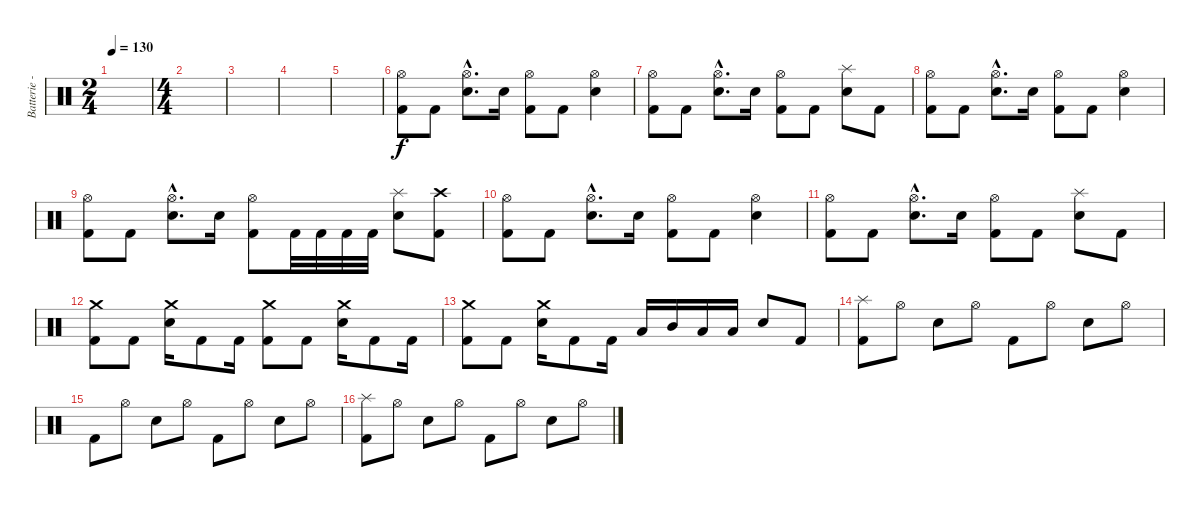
\track ("Batterie - Anton" "Batterie -") {instrument percussion}
\staff {score}
\articulation defaults
\ts (2 4)
\tempo 130
\clef neutral
\ks c
|
\ts (4 4)
|
|
|
|
("Hi-Hat (open)" "Kick (hit) 2").8 "Kick (hit) 2".8 ("Hi-Hat (open)"{hac} "Electric Snare (hit)"{hac}).8{d} "Electric Snare (hit)".16 ("Hi-Hat (open)" "Kick (hit) 2").8 "Kick (hit) 2".8 ("Hi-Hat (open)" "Electric Snare (hit)").4 |
("Hi-Hat (open)" "Kick (hit) 2").8 "Kick (hit) 2".8 ("Hi-Hat (open)"{hac} "Electric Snare (hit)"{hac}).8{d} "Electric Snare (hit)".16 ("Hi-Hat (open)" "Kick (hit) 2").8 "Kick (hit) 2".8 ("Splash (hit)" "Electric Snare (hit)").8 "Kick (hit) 2".8 |
("Hi-Hat (open)" "Kick (hit) 2").8 "Kick (hit) 2".8 ("Hi-Hat (open)"{hac} "Electric Snare (hit)"{hac}).8{d} "Electric Snare (hit)".16 ("Hi-Hat (open)" "Kick (hit) 2").8 "Kick (hit) 2".8 ("Hi-Hat (open)" "Electric Snare (hit)").4 |
("Hi-Hat (open)" "Kick (hit) 2").8 "Kick (hit) 2".8 ("Hi-Hat (open)"{hac} "Electric Snare (hit)"{hac}).8{d} "Electric Snare (hit)".16 ("Hi-Hat (open)" "Kick (hit) 2").8 "Kick (hit) 2".32 "Kick (hit) 2".32 "Kick (hit) 2".32 "Kick (hit) 2".32 ("Splash (hit)" "Electric Snare (hit)").8 ("Crash high (hit)" "Kick (hit) 2").8 |
("Hi-Hat (open)" "Kick (hit) 2").8 "Kick (hit) 2".8 ("Hi-Hat (open)"{hac} "Electric Snare (hit)"{hac}).8{d} "Electric Snare (hit)".16 ("Hi-Hat (open)" "Kick (hit) 2").8 "Kick (hit) 2".8 ("Hi-Hat (open)" "Electric Snare (hit)").4 |
("Hi-Hat (open)" "Kick (hit) 2").8 "Kick (hit) 2".8 ("Hi-Hat (open)"{hac} "Electric Snare (hit)"{hac}).8{d} "Electric Snare (hit)".16 ("Hi-Hat (open)" "Kick (hit) 2").8 "Kick (hit) 2".8 ("Splash (hit)" "Electric Snare (hit)").8 "Kick (hit) 2".8 |
("Crash medium (hit)" "Kick (hit) 2").8 "Kick (hit) 2".8 ("Crash medium (hit)" "Electric Snare (hit)").16 "Kick (hit) 2".8 "Kick (hit) 2".16 ("Crash medium (hit)" "Kick (hit) 2").8 "Kick (hit) 2".8 ("Crash medium (hit)" "Electric Snare (hit)").16 "Kick (hit) 2".8 "Kick (hit) 2".16 |
("Crash medium (hit)" "Kick (hit) 2").8 "Kick (hit) 2".8 ("Crash medium (hit)" "Electric Snare (hit)").16 "Kick (hit) 2".8 "Kick (hit) 2".16 "Low Tom (hit)".16 "Mid Tom (hit)".16 "Low Tom (hit)".16 "Low Tom (hit)".16 "Electric Snare (hit)".8 "Kick (hit) 2".8 |
("Splash (hit)" "Kick (hit) 2").8 "Hi-Hat (open)".8 "Electric Snare (hit)".8 "Hi-Hat (open)".8 "Kick (hit) 2".8 "Hi-Hat (open)".8 "Electric Snare (hit)".8 "Hi-Hat (open)".8 |
"Kick (hit) 2".8 "Hi-Hat (open)".8 "Electric Snare (hit)".8 "Hi-Hat (open)".8 "Kick (hit) 2".8 "Hi-Hat (open)".8 "Electric Snare (hit)".8 "Hi-Hat (open)".8 |
("Splash (hit)" "Kick (hit) 2").8 "Hi-Hat (open)".8 "Electric Snare (hit)".8 "Hi-Hat (open)".8 "Kick (hit) 2".8 "Hi-Hat (open)".8 "Electric Snare (hit)".8 "Hi-Hat (open)".8
